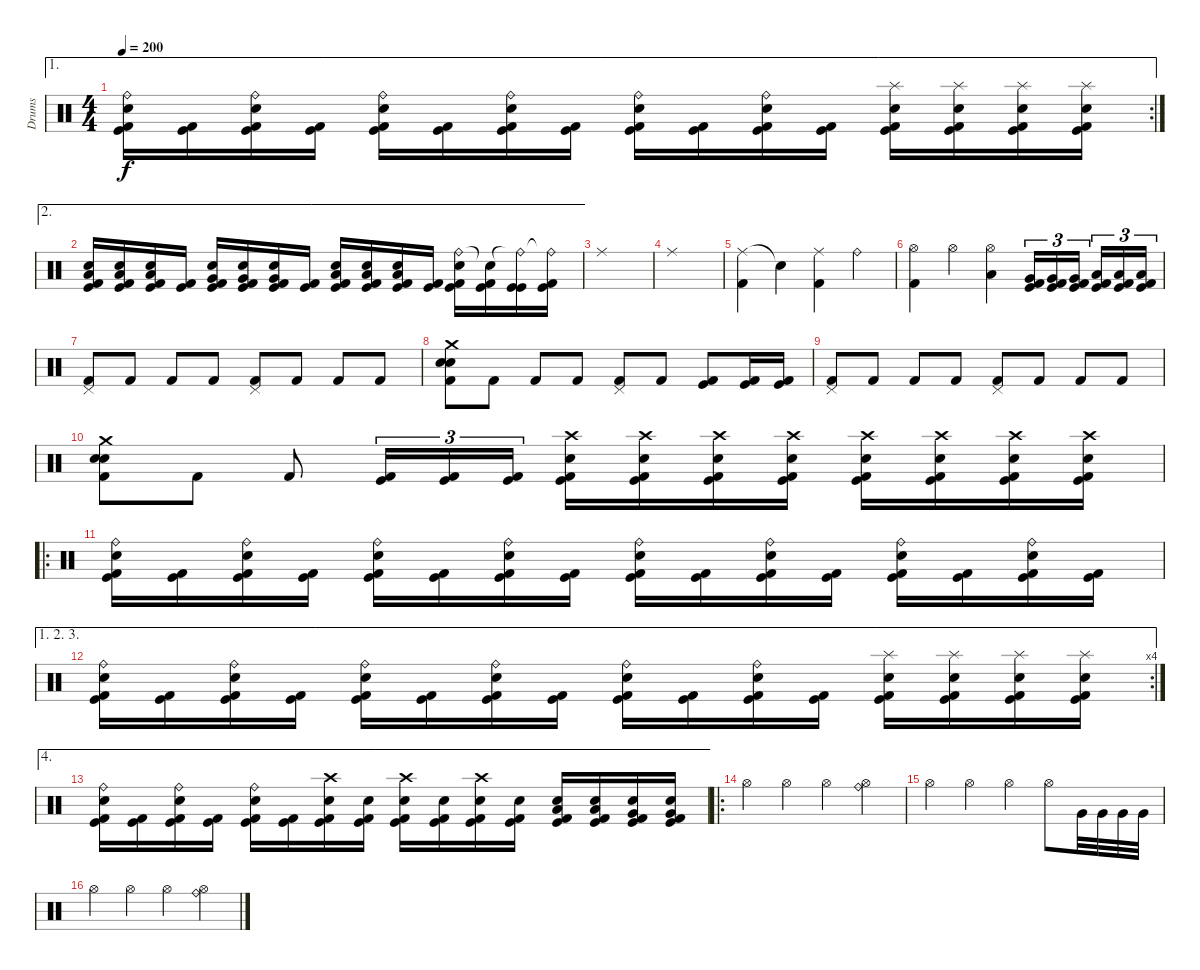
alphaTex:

\track ("Drums" "Drums") {instrument percussion}
\staff {score}
\articulation defaults
\ae 1
\rc 2
\ts (4 4)
\tempo 200
\clef neutral
\ks c
("Ride (bell)" "Electric Snare (hit)" "Kick (hit)" "Kick (hit) 2").16{dy f} ("Kick (hit)" "Kick (hit) 2").16 ("Ride (bell)" "Electric Snare (hit)" "Kick (hit)" "Kick (hit) 2").16 ("Kick (hit)" "Kick (hit) 2").16 ("Ride (bell)" "Electric Snare (hit)" "Kick (hit)" "Kick (hit) 2").16 ("Kick (hit)" "Kick (hit) 2").16 ("Ride (bell)" "Electric Snare (hit)" "Kick (hit)" "Kick (hit) 2").16 ("Kick (hit)" "Kick (hit) 2").16 ("Ride (bell)" "Electric Snare (hit)" "Kick (hit)" "Kick (hit) 2").16 ("Kick (hit)" "Kick (hit) 2").16 ("Ride (bell)" "Electric Snare (hit)" "Kick (hit)" "Kick (hit) 2").16 ("Kick (hit)" "Kick (hit) 2").16 ("Splash (hit)" "Electric Snare (hit)" "Kick (hit)" "Kick (hit) 2").16 ("Splash (hit)" "Electric Snare (hit)" "Kick (hit)" "Kick (hit) 2").16 ("Splash (hit)" "Electric Snare (hit)" "Kick (hit)" "Kick (hit) 2").16 ("Splash (hit)" "Electric Snare (hit)" "Kick (hit)" "Kick (hit) 2").16 |
\ae 2
("Low Tom (hit)" "Electric Snare (hit)" "Kick (hit)" "Kick (hit) 2").16 ("Low Tom (hit)" "Electric Snare (hit)" "Kick (hit)" "Kick (hit) 2").16 ("Low Tom (hit)" "Electric Snare (hit)" "Kick (hit)" "Kick (hit) 2").16 ("Kick (hit)" "Kick (hit) 2").16 ("Very Low Tom (hit)" "Electric Snare (hit)" "Kick (hit)" "Kick (hit) 2").16 ("Very Low Tom (hit)" "Electric Snare (hit)" "Kick (hit)" "Kick (hit) 2").16 ("Very Low Tom (hit)" "Electric Snare (hit)" "Kick (hit)" "Kick (hit) 2").16 ("Kick (hit)" "Kick (hit) 2").16 ("Low Tom (hit)" "Electric Snare (hit)" "Kick (hit)" "Kick (hit) 2").16 ("Low Tom (hit)" "Electric Snare (hit)" "Kick (hit)" "Kick (hit) 2").16 ("Low Tom (hit)" "Electric Snare (hit)" "Kick (hit)" "Kick (hit) 2").16 ("Kick (hit)" "Kick (hit) 2").16 ("Ride (bell)" "Electric Snare (hit)" "Kick (hit)" "Kick (hit) 2").16 ("Snare (hit)"{t} "Kick (hit)" "Kick (hit) 2").16 ("Ride (bell)"{t} "Kick (hit)" "Kick (hit)").16 ("Ride (bell)"{t} "Kick (hit)" "Kick (hit) 2").16 |
"Ride (middle)".1 |
"Ride (middle)".1 |
("Ride (middle)" "Kick (hit) 2").4 "Snare (hit)"{t}.4 ("Ride (middle)" "Kick (hit) 2").4 "Ride (bell)".4 |
("Kick (hit) 2" "Hi-Hat (open)").4 "Hi-Hat (open)".4 ("Low Tom (hit)" "Hi-Hat (open)").4 ("Very Low Tom (hit)" "Kick (hit)" "Kick (hit) 2").16{tu (3 2)} ("Very Low Tom (hit)" "Kick (hit)" "Kick (hit) 2").16{tu (3 2)} ("Very Low Tom (hit)" "Kick (hit)" "Kick (hit) 2").16{tu (3 2)} ("Low Floor Tom (hit)" "Kick (hit)" "Kick (hit) 2").16{tu (3 2)} ("Low Floor Tom (hit)" "Kick (hit)" "Kick (hit) 2").16{tu (3 2)} ("Low Floor Tom (hit)" "Kick (hit)" "Kick (hit) 2").16{tu (3 2)} |
("Pedal Hi-Hat (hit)" "Kick (hit) 2").8 "Kick (hit) 2".8 "Kick (hit) 2".8 "Kick (hit) 2".8 ("Pedal Hi-Hat (hit)" "Kick (hit) 2").8 "Kick (hit) 2".8 "Kick (hit) 2".8 "Kick (hit) 2".8 |
("Crash medium (hit)" "Electric Snare (hit)" "Electric Snare (hit)" "Kick (hit) 2").8 "Kick (hit) 2".8 "Kick (hit) 2".8 "Kick (hit) 2".8 ("Pedal Hi-Hat (hit)" "Kick (hit) 2").8 "Kick (hit) 2".8 ("Kick (hit)" "Kick (hit) 2").8 ("Kick (hit)" "Kick (hit) 2").16 ("Kick (hit)" "Kick (hit) 2").16 |
("Pedal Hi-Hat (hit)" "Kick (hit) 2").8 "Kick (hit) 2".8 "Kick (hit) 2".8 "Kick (hit) 2".8 ("Pedal Hi-Hat (hit)" "Kick (hit) 2").8 "Kick (hit) 2".8 "Kick (hit) 2".8 "Kick (hit) 2".8 |
("Crash medium (hit)" "Electric Snare (hit)" "Electric Snare (hit)" "Kick (hit) 2").8 "Kick (hit) 2".8 "Kick (hit) 2".8 ("Kick (hit)" "Kick (hit) 2").16{tu (3 2)} ("Kick (hit)" "Kick (hit) 2").16{tu (3 2)} ("Kick (hit)" "Kick (hit) 2").16{tu (3 2)} ("Crash high (hit)" "Kick (hit)" "Electric Snare (hit)" "Kick (hit) 2").16 ("Crash high (hit)" "Kick (hit)" "Electric Snare (hit)" "Kick (hit) 2").16 ("Crash high (hit)" "Kick (hit)" "Electric Snare (hit)" "Kick (hit) 2").16 ("Crash high (hit)" "Kick (hit)" "Electric Snare (hit)" "Kick (hit) 2").16 ("Crash high (hit)" "Kick (hit)" "Electric Snare (hit)" "Kick (hit) 2").16 ("Crash high (hit)" "Kick (hit)" "Electric Snare (hit)" "Kick (hit) 2").16 ("Crash high (hit)" "Kick (hit)" "Electric Snare (hit)" "Kick (hit) 2").16 ("Crash high (hit)" "Kick (hit)" "Electric Snare (hit)" "Kick (hit) 2").16 |
\ro
("Ride (bell)" "Electric Snare (hit)" "Kick (hit)" "Kick (hit) 2").16 ("Kick (hit)" "Kick (hit) 2").16 ("Ride (bell)" "Electric Snare (hit)" "Kick (hit)" "Kick (hit) 2").16 ("Kick (hit)" "Kick (hit) 2").16 ("Ride (bell)" "Electric Snare (hit)" "Kick (hit)" "Kick (hit) 2").16 ("Kick (hit)" "Kick (hit) 2").16 ("Ride (bell)" "Electric Snare (hit)" "Kick (hit)" "Kick (hit) 2").16 ("Kick (hit)" "Kick (hit) 2").16 ("Ride (bell)" "Electric Snare (hit)" "Kick (hit)" "Kick (hit) 2").16 ("Kick (hit)" "Kick (hit) 2").16 ("Ride (bell)" "Electric Snare (hit)" "Kick (hit)" "Kick (hit) 2").16 ("Kick (hit)" "Kick (hit) 2").16 ("Ride (bell)" "Electric Snare (hit)" "Kick (hit)" "Kick (hit) 2").16 ("Kick (hit)" "Kick (hit) 2").16 ("Ride (bell)" "Electric Snare (hit)" "Kick (hit)" "Kick (hit) 2").16 ("Kick (hit)" "Kick (hit) 2").16 |
\ae (1 2 3)
\rc 4
("Ride (bell)" "Electric Snare (hit)" "Kick (hit)" "Kick (hit) 2").16 ("Kick (hit)" "Kick (hit) 2").16 ("Ride (bell)" "Electric Snare (hit)" "Kick (hit)" "Kick (hit) 2").16 ("Kick (hit)" "Kick (hit) 2").16 ("Ride (bell)" "Electric Snare (hit)" "Kick (hit)" "Kick (hit) 2").16 ("Kick (hit)" "Kick (hit) 2").16 ("Ride (bell)" "Electric Snare (hit)" "Kick (hit)" "Kick (hit) 2").16 ("Kick (hit)" "Kick (hit) 2").16 ("Ride (bell)" "Electric Snare (hit)" "Kick (hit)" "Kick (hit) 2").16 ("Kick (hit)" "Kick (hit) 2").16 ("Ride (bell)" "Electric Snare (hit)" "Kick (hit)" "Kick (hit) 2").16 ("Kick (hit)" "Kick (hit) 2").16 ("Splash (hit)" "Electric Snare (hit)" "Kick (hit)" "Kick (hit) 2").16 ("Splash (hit)" "Electric Snare (hit)" "Kick (hit)" "Kick (hit) 2").16 ("Splash (hit)" "Electric Snare (hit)" "Kick (hit)" "Kick (hit) 2").16 ("Splash (hit)" "Electric Snare (hit)" "Kick (hit)" "Kick (hit) 2").16 |
\ae 4
("Ride (bell)" "Electric Snare (hit)" "Kick (hit)" "Kick (hit) 2").16 ("Kick (hit)" "Kick (hit) 2").16 ("Ride (bell)" "Electric Snare (hit)" "Kick (hit)" "Kick (hit) 2").16 ("Kick (hit)" "Kick (hit) 2").16 ("Ride (bell)" "Electric Snare (hit)" "Kick (hit)" "Kick (hit) 2").16 ("Kick (hit)" "Kick (hit) 2").16 ("Crash high (hit)" "Electric Snare (hit)" "Kick (hit)" "Kick (hit) 2").16 ("Electric Snare (hit)" "Kick (hit)" "Kick (hit) 2").16 ("Crash high (hit)" "Electric Snare (hit)" "Kick (hit)" "Kick (hit) 2").16 ("Electric Snare (hit)" "Kick (hit)" "Kick (hit) 2").16 ("Crash high (hit)" "Electric Snare (hit)" "Kick (hit)" "Kick (hit) 2").16 ("Electric Snare (hit)" "Kick (hit)" "Kick (hit) 2").16 ("Low Tom (hit)" "Electric Snare (hit)" "Kick (hit)" "Kick (hit) 2").16 ("Low Tom (hit)" "Electric Snare (hit)" "Kick (hit)" "Kick (hit) 2").16 ("Very Low Tom (hit)" "Electric Snare (hit)" "Kick (hit)" "Kick (hit) 2").16 ("Very Low Tom (hit)" "Electric Snare (hit)" "Kick (hit)" "Kick (hit) 2").16 |
\ro "Hi-Hat (open)".4 "Hi-Hat (open)".4 "Hi-Hat (open)".4
("Ride (bell)" "Hi-Hat (open)").4 |
"Hi-Hat (open)".4 "Hi-Hat (open)".4 "Hi-Hat (open)".4 "Hi-Hat (open)".8 "Very Low Tom (hit)".32 "Very Low Tom (hit)".32 "Very Low Tom (hit)".32 "Very Low Tom (hit)".32 |
"Hi-Hat (open)".4 "Hi-Hat (open)".4 "Hi-Hat (open)".4 ("Ride (bell)" "Hi-Hat (open)").4
